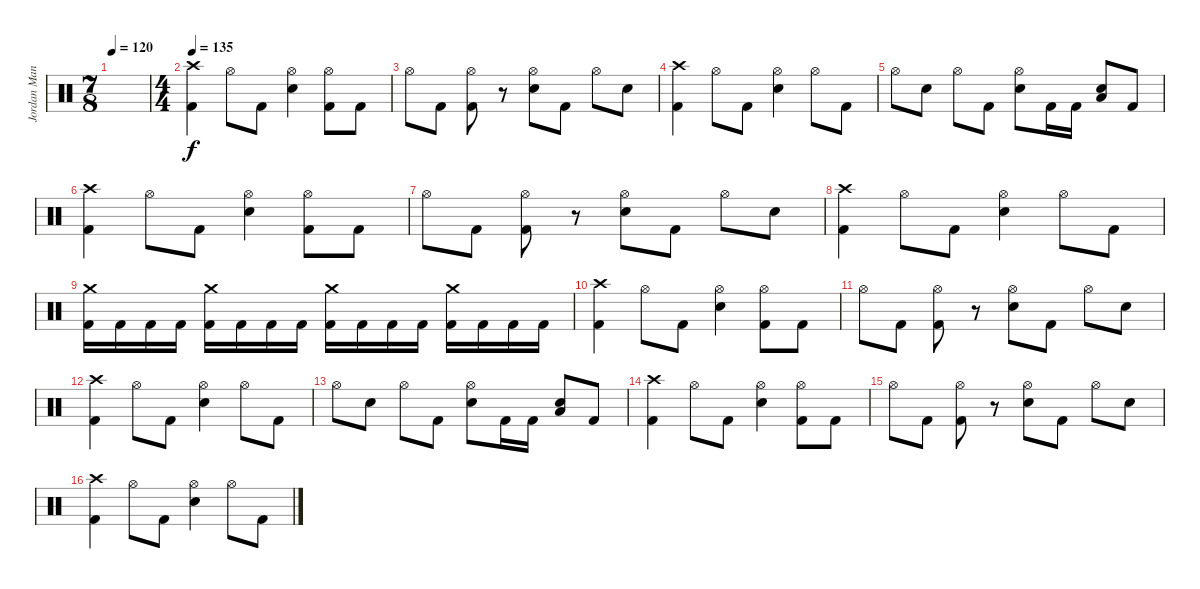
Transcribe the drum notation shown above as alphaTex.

\track ("Jordan Mancino" "Jordan Man") {instrument percussion}
\staff
\articulation defaults
\ts (7 8)
\tempo 120
\clef neutral
\ks c
|
\ts (4 4)
\section ("" "")
\tempo 135
("Crash high (hit)" "Kick (hit) 2").4 "Hi-Hat (open)".8 "Kick (hit) 2".8 ("Hi-Hat (open)" "Snare (hit) 2").4 ("Hi-Hat (open)" "Kick (hit) 2").8 "Kick (hit) 2".8 |
"Hi-Hat (open)".8 "Kick (hit) 2".8 ("Hi-Hat (open)" "Kick (hit) 2").8 r.8 ("Hi-Hat (open)" "Snare (hit) 2").8 "Kick (hit) 2".8 "Hi-Hat (open)".8 "Snare (hit) 2".8 |
("Crash high (hit)" "Kick (hit) 2").4 "Hi-Hat (open)".8 "Kick (hit) 2".8 ("Hi-Hat (open)" "Snare (hit) 2").4 "Hi-Hat (open)".8 "Kick (hit) 2".8 |
"Hi-Hat (open)".8 "Snare (hit) 2".8 "Hi-Hat (open)".8 "Kick (hit) 2".8 ("Hi-Hat (open)" "Snare (hit) 2").8 "Kick (hit) 2".16 "Kick (hit) 2".16 ("Snare (hit) 2" "Low Floor Tom (hit)").8 "Kick (hit) 2".8 |
("Crash high (hit)" "Kick (hit) 2").4 "Hi-Hat (open)".8 "Kick (hit) 2".8 ("Hi-Hat (open)" "Snare (hit) 2").4 ("Hi-Hat (open)" "Kick (hit) 2").8 "Kick (hit) 2".8 |
"Hi-Hat (open)".8 "Kick (hit) 2".8 ("Hi-Hat (open)" "Kick (hit) 2").8 r.8 ("Hi-Hat (open)" "Snare (hit) 2").8 "Kick (hit) 2".8 "Hi-Hat (open)".8 "Snare (hit) 2".8 |
("Crash high (hit)" "Kick (hit) 2").4 "Hi-Hat (open)".8 "Kick (hit) 2".8 ("Hi-Hat (open)" "Snare (hit) 2").4 "Hi-Hat (open)".8 "Kick (hit) 2".8 |
("Crash medium (hit)" "Kick (hit) 2").16 "Kick (hit) 2".16 "Kick (hit) 2".16 "Kick (hit) 2".16 ("Crash medium (hit)" "Kick (hit) 2").16 "Kick (hit) 2".16 "Kick (hit) 2".16 "Kick (hit) 2".16 ("Crash medium (hit)" "Kick (hit) 2").16 "Kick (hit) 2".16 "Kick (hit) 2".16 "Kick (hit) 2".16 ("Crash medium (hit)" "Kick (hit) 2").16 "Kick (hit) 2".16 "Kick (hit) 2".16 "Kick (hit) 2".16 |
("Crash high (hit)" "Kick (hit) 2").4 "Hi-Hat (open)".8 "Kick (hit) 2".8 ("Hi-Hat (open)" "Snare (hit) 2").4 ("Hi-Hat (open)" "Kick (hit) 2").8 "Kick (hit) 2".8 |
"Hi-Hat (open)".8 "Kick (hit) 2".8 ("Hi-Hat (open)" "Kick (hit) 2").8 r.8 ("Hi-Hat (open)" "Snare (hit) 2").8 "Kick (hit) 2".8 "Hi-Hat (open)".8 "Snare (hit) 2".8 |
("Crash high (hit)" "Kick (hit) 2").4 "Hi-Hat (open)".8 "Kick (hit) 2".8 ("Hi-Hat (open)" "Snare (hit) 2").4 "Hi-Hat (open)".8 "Kick (hit) 2".8 |
"Hi-Hat (open)".8 "Snare (hit) 2".8 "Hi-Hat (open)".8 "Kick (hit) 2".8 ("Hi-Hat (open)" "Snare (hit) 2").8 "Kick (hit) 2".16 "Kick (hit) 2".16 ("Snare (hit) 2" "Low Floor Tom (hit)").8 "Kick (hit) 2".8 |
("Crash high (hit)" "Kick (hit) 2").4 "Hi-Hat (open)".8 "Kick (hit) 2".8 ("Hi-Hat (open)" "Snare (hit) 2").4 ("Hi-Hat (open)" "Kick (hit) 2").8 "Kick (hit) 2".8 |
"Hi-Hat (open)".8 "Kick (hit) 2".8 ("Hi-Hat (open)" "Kick (hit) 2").8 r.8 ("Hi-Hat (open)" "Snare (hit) 2").8 "Kick (hit) 2".8 "Hi-Hat (open)".8 "Snare (hit) 2".8 |
("Crash high (hit)" "Kick (hit) 2").4 "Hi-Hat (open)".8 "Kick (hit) 2".8 ("Hi-Hat (open)" "Snare (hit) 2").4 "Hi-Hat (open)".8 "Kick (hit) 2".8
